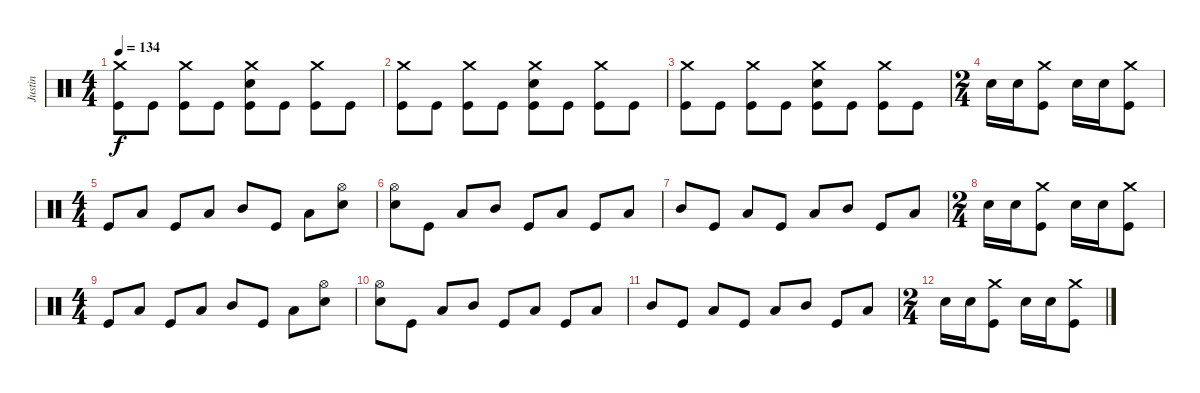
\track ("Justin" "Justin") {instrument percussion}
\staff {score}
\articulation defaults
\ts (4 4)
\tempo 134
\clef neutral
\ks c
("Crash medium (hit)" "Kick (hit)").8{dy f} "Kick (hit)".8 ("Crash medium (hit)" "Kick (hit)").8 "Kick (hit)".8 ("Crash medium (hit)" "Electric Snare (hit)" "Kick (hit)").8 "Kick (hit)".8 ("Crash medium (hit)" "Kick (hit)").8 "Kick (hit)".8 |
("Crash medium (hit)" "Kick (hit)").8 "Kick (hit)".8 ("Crash medium (hit)" "Kick (hit)").8 "Kick (hit)".8 ("Crash medium (hit)" "Electric Snare (hit)" "Kick (hit)").8 "Kick (hit)".8 ("Crash medium (hit)" "Kick (hit)").8 "Kick (hit)".8 |
("Crash medium (hit)" "Kick (hit)").8 "Kick (hit)".8 ("Crash medium (hit)" "Kick (hit)").8 "Kick (hit)".8 ("Crash medium (hit)" "Electric Snare (hit)" "Kick (hit)").8 "Kick (hit)".8 ("Crash medium (hit)" "Kick (hit)").8 "Kick (hit)".8 |
\ts (2 4)
"Electric Snare (hit)".16 "Electric Snare (hit)".16 ("Crash medium (hit)" "Kick (hit)").8 "Electric Snare (hit)".16 "Electric Snare (hit)".16 ("Crash medium (hit)" "Kick (hit)").8 |
\ts (4 4)
"Kick (hit)".8 "Low Tom (hit)".8 "Kick (hit)".8 "Low Tom (hit)".8 "Mid Tom (hit)".8 "Kick (hit)".8 "Low Floor Tom (hit)".8 ("Hi-Hat (open)" "Electric Snare (hit)").8 |
("Hi-Hat (open)" "Electric Snare (hit)").8 "Kick (hit)".8 "Low Tom (hit)".8 "Mid Tom (hit)".8 "Kick (hit)".8 "Low Tom (hit)".8 "Kick (hit)".8 "Low Tom (hit)".8 |
"Mid Tom (hit)".8 "Kick (hit)".8 "Low Tom (hit)".8 "Kick (hit)".8 "Low Tom (hit)".8 "Mid Tom (hit)".8 "Kick (hit)".8 "Low Tom (hit)".8 |
\ts (2 4)
"Electric Snare (hit)".16 "Electric Snare (hit)".16 ("Crash medium (hit)" "Kick (hit)").8 "Electric Snare (hit)".16 "Electric Snare (hit)".16 ("Crash medium (hit)" "Kick (hit)").8 |
\ts (4 4)
"Kick (hit)".8 "Low Tom (hit)".8 "Kick (hit)".8 "Low Tom (hit)".8 "Mid Tom (hit)".8 "Kick (hit)".8 "Low Floor Tom (hit)".8 ("Hi-Hat (open)" "Electric Snare (hit)").8 |
("Hi-Hat (open)" "Electric Snare (hit)").8 "Kick (hit)".8 "Low Tom (hit)".8 "Mid Tom (hit)".8 "Kick (hit)".8 "Low Tom (hit)".8 "Kick (hit)".8 "Low Tom (hit)".8 |
"Mid Tom (hit)".8 "Kick (hit)".8 "Low Tom (hit)".8 "Kick (hit)".8 "Low Tom (hit)".8 "Mid Tom (hit)".8 "Kick (hit)".8 "Low Tom (hit)".8 |
\ts (2 4)
"Electric Snare (hit)".16 "Electric Snare (hit)".16 ("Crash medium (hit)" "Kick (hit)").8 "Electric Snare (hit)".16 "Electric Snare (hit)".16 ("Crash medium (hit)" "Kick (hit)").8
